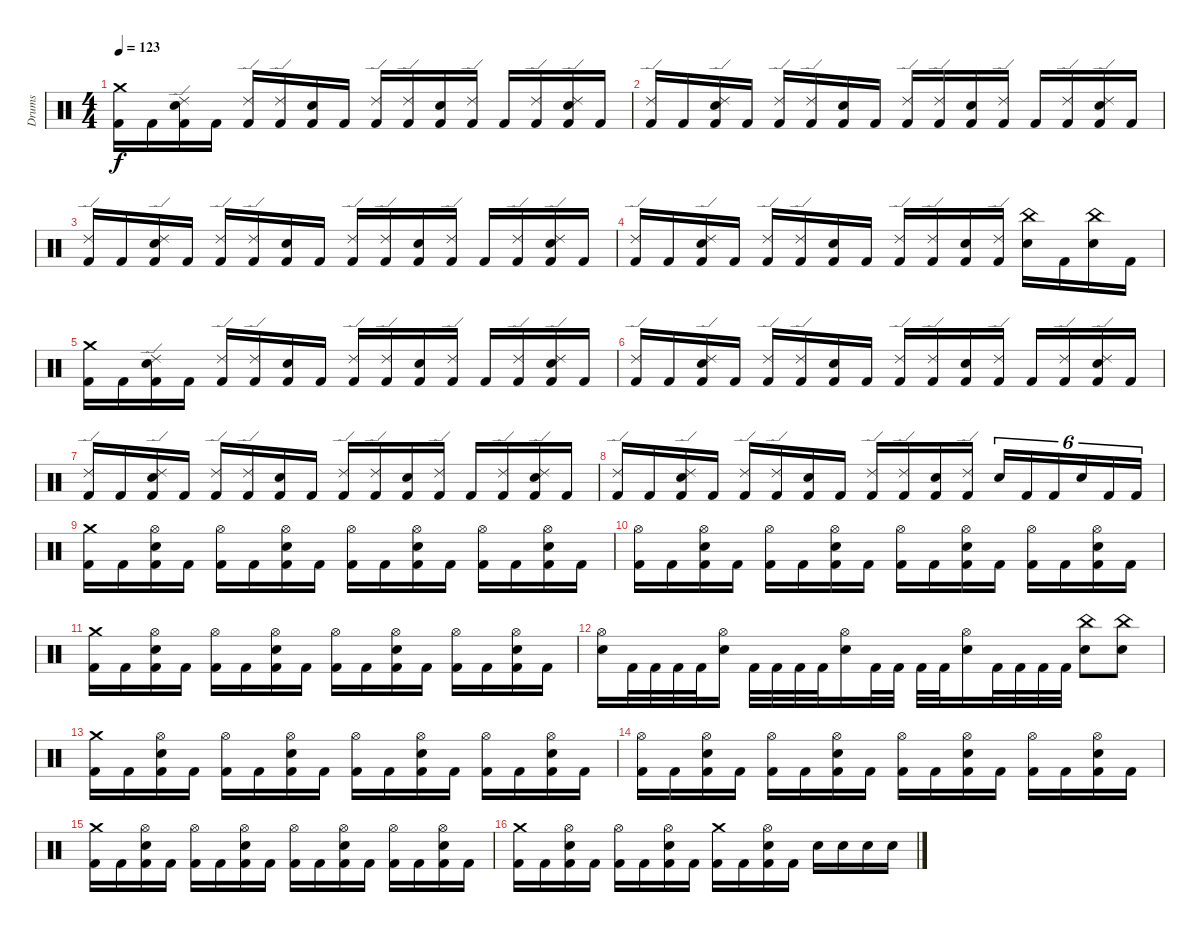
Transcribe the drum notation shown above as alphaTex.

\track ("Drums" "Drums") {instrument percussion}
\staff {score}
\articulation defaults
\ts (4 4)
\tempo 123
\clef neutral
\ks c
("Crash medium (hit)" "Kick (hit) 2").16{dy f} "Kick (hit) 2".16 ("Electric Snare (hit)" "Ride (edge) 2" "Kick (hit) 2").16 "Kick (hit) 2".16 ("Ride (edge) 2" "Kick (hit) 2").16 ("Ride (edge) 2" "Kick (hit) 2").16 ("Electric Snare (hit)" "Kick (hit) 2").16 "Kick (hit) 2".16 ("Ride (edge) 2" "Kick (hit) 2").16 ("Ride (edge) 2" "Kick (hit) 2").16 ("Electric Snare (hit)" "Kick (hit) 2").16 ("Ride (edge) 2" "Kick (hit) 2").16 "Kick (hit) 2".16 ("Ride (edge) 2" "Kick (hit) 2").16 ("Electric Snare (hit)" "Ride (edge) 2" "Kick (hit) 2").16 "Kick (hit) 2".16 |
("Ride (edge) 2" "Kick (hit) 2").16 "Kick (hit) 2".16 ("Electric Snare (hit)" "Ride (edge) 2" "Kick (hit) 2").16 "Kick (hit) 2".16 ("Ride (edge) 2" "Kick (hit) 2").16 ("Ride (edge) 2" "Kick (hit) 2").16 ("Electric Snare (hit)" "Kick (hit) 2").16 "Kick (hit) 2".16 ("Ride (edge) 2" "Kick (hit) 2").16 ("Ride (edge) 2" "Kick (hit) 2").16 ("Electric Snare (hit)" "Kick (hit) 2").16 ("Ride (edge) 2" "Kick (hit) 2").16 "Kick (hit) 2".16 ("Ride (edge) 2" "Kick (hit) 2").16 ("Electric Snare (hit)" "Ride (edge) 2" "Kick (hit) 2").16 "Kick (hit) 2".16 |
("Ride (edge) 2" "Kick (hit) 2").16 "Kick (hit) 2".16 ("Electric Snare (hit)" "Ride (edge) 2" "Kick (hit) 2").16 "Kick (hit) 2".16 ("Ride (edge) 2" "Kick (hit) 2").16 ("Ride (edge) 2" "Kick (hit) 2").16 ("Electric Snare (hit)" "Kick (hit) 2").16 "Kick (hit) 2".16 ("Ride (edge) 2" "Kick (hit) 2").16 ("Ride (edge) 2" "Kick (hit) 2").16 ("Electric Snare (hit)" "Kick (hit) 2").16 ("Ride (edge) 2" "Kick (hit) 2").16 "Kick (hit) 2".16 ("Ride (edge) 2" "Kick (hit) 2").16 ("Electric Snare (hit)" "Ride (edge) 2" "Kick (hit) 2").16 "Kick (hit) 2".16 |
("Ride (edge) 2" "Kick (hit) 2").16 "Kick (hit) 2".16 ("Electric Snare (hit)" "Ride (edge) 2" "Kick (hit) 2").16 "Kick (hit) 2".16 ("Ride (edge) 2" "Kick (hit) 2").16 ("Ride (edge) 2" "Kick (hit) 2").16 ("Electric Snare (hit)" "Kick (hit) 2").16 "Kick (hit) 2".16 ("Ride (edge) 2" "Kick (hit) 2").16 ("Ride (edge) 2" "Kick (hit) 2").16 ("Electric Snare (hit)" "Kick (hit) 2").16 ("Ride (edge) 2" "Kick (hit) 2").16 ("China (hit)" "Electric Snare (hit)").16 "Kick (hit) 2".16 ("China (hit)" "Electric Snare (hit)").16 "Kick (hit) 2".16 |
("Crash medium (hit)" "Kick (hit) 2").16 "Kick (hit) 2".16 ("Electric Snare (hit)" "Ride (edge) 2" "Kick (hit) 2").16 "Kick (hit) 2".16 ("Ride (edge) 2" "Kick (hit) 2").16 ("Ride (edge) 2" "Kick (hit) 2").16 ("Electric Snare (hit)" "Kick (hit) 2").16 "Kick (hit) 2".16 ("Ride (edge) 2" "Kick (hit) 2").16 ("Ride (edge) 2" "Kick (hit) 2").16 ("Electric Snare (hit)" "Kick (hit) 2").16 ("Ride (edge) 2" "Kick (hit) 2").16 "Kick (hit) 2".16 ("Ride (edge) 2" "Kick (hit) 2").16 ("Electric Snare (hit)" "Ride (edge) 2" "Kick (hit) 2").16 "Kick (hit) 2".16 |
("Ride (edge) 2" "Kick (hit) 2").16 "Kick (hit) 2".16 ("Electric Snare (hit)" "Ride (edge) 2" "Kick (hit) 2").16 "Kick (hit) 2".16 ("Ride (edge) 2" "Kick (hit) 2").16 ("Ride (edge) 2" "Kick (hit) 2").16 ("Electric Snare (hit)" "Kick (hit) 2").16 "Kick (hit) 2".16 ("Ride (edge) 2" "Kick (hit) 2").16 ("Ride (edge) 2" "Kick (hit) 2").16 ("Electric Snare (hit)" "Kick (hit) 2").16 ("Ride (edge) 2" "Kick (hit) 2").16 "Kick (hit) 2".16 ("Ride (edge) 2" "Kick (hit) 2").16 ("Electric Snare (hit)" "Ride (edge) 2" "Kick (hit) 2").16 "Kick (hit) 2".16 |
("Ride (edge) 2" "Kick (hit) 2").16 "Kick (hit) 2".16 ("Electric Snare (hit)" "Ride (edge) 2" "Kick (hit) 2").16 "Kick (hit) 2".16 ("Ride (edge) 2" "Kick (hit) 2").16 ("Ride (edge) 2" "Kick (hit) 2").16 ("Electric Snare (hit)" "Kick (hit) 2").16 "Kick (hit) 2".16 ("Ride (edge) 2" "Kick (hit) 2").16 ("Ride (edge) 2" "Kick (hit) 2").16 ("Electric Snare (hit)" "Kick (hit) 2").16 ("Ride (edge) 2" "Kick (hit) 2").16 "Kick (hit) 2".16 ("Ride (edge) 2" "Kick (hit) 2").16 ("Electric Snare (hit)" "Ride (edge) 2" "Kick (hit) 2").16 "Kick (hit) 2".16 |
("Ride (edge) 2" "Kick (hit) 2").16 "Kick (hit) 2".16 ("Electric Snare (hit)" "Ride (edge) 2" "Kick (hit) 2").16 "Kick (hit) 2".16 ("Ride (edge) 2" "Kick (hit) 2").16 ("Ride (edge) 2" "Kick (hit) 2").16 ("Electric Snare (hit)" "Kick (hit) 2").16 "Kick (hit) 2".16 ("Ride (edge) 2" "Kick (hit) 2").16 ("Ride (edge) 2" "Kick (hit) 2").16 ("Electric Snare (hit)" "Kick (hit) 2").16 ("Ride (edge) 2" "Kick (hit) 2").16 "Electric Snare (hit)".16{tu (6 4)} "Kick (hit) 2".16{tu (6 4)} "Kick (hit) 2".16{tu (6 4)} "Electric Snare (hit)".16{tu (6 4)} "Kick (hit) 2".16{tu (6 4)} "Kick (hit) 2".16{tu (6 4)} |
("Kick (hit) 2" "Crash medium (hit)").16 "Kick (hit) 2".16 ("Hi-Hat (open)" "Kick (hit) 2" "Electric Snare (hit)").16 "Kick (hit) 2".16 ("Kick (hit) 2" "Hi-Hat (open)").16 "Kick (hit) 2".16 ("Kick (hit) 2" "Electric Snare (hit)" "Hi-Hat (open)").16 "Kick (hit) 2".16 ("Kick (hit) 2" "Hi-Hat (open)").16 "Kick (hit) 2".16 ("Kick (hit) 2" "Electric Snare (hit)" "Hi-Hat (open)").16 "Kick (hit) 2".16 ("Kick (hit) 2" "Hi-Hat (open)").16 "Kick (hit) 2".16 ("Kick (hit) 2" "Electric Snare (hit)" "Hi-Hat (open)").16 "Kick (hit) 2".16 |
("Hi-Hat (open)" "Kick (hit) 2").16 "Kick (hit) 2".16 ("Hi-Hat (open)" "Kick (hit) 2" "Electric Snare (hit)").16 "Kick (hit) 2".16 ("Kick (hit) 2" "Hi-Hat (open)").16 "Kick (hit) 2".16 ("Kick (hit) 2" "Electric Snare (hit)" "Hi-Hat (open)").16 "Kick (hit) 2".16 ("Kick (hit) 2" "Hi-Hat (open)").16 "Kick (hit) 2".16 ("Kick (hit) 2" "Electric Snare (hit)" "Hi-Hat (open)").16 "Kick (hit) 2".16 ("Kick (hit) 2" "Hi-Hat (open)").16 "Kick (hit) 2".16 ("Kick (hit) 2" "Electric Snare (hit)" "Hi-Hat (open)").16 "Kick (hit) 2".16 |
("Kick (hit) 2" "Crash medium (hit)").16 "Kick (hit) 2".16 ("Hi-Hat (open)" "Kick (hit) 2" "Electric Snare (hit)").16 "Kick (hit) 2".16 ("Kick (hit) 2" "Hi-Hat (open)").16 "Kick (hit) 2".16 ("Kick (hit) 2" "Electric Snare (hit)" "Hi-Hat (open)").16 "Kick (hit) 2".16 ("Kick (hit) 2" "Hi-Hat (open)").16 "Kick (hit) 2".16 ("Kick (hit) 2" "Electric Snare (hit)" "Hi-Hat (open)").16 "Kick (hit) 2".16 ("Kick (hit) 2" "Hi-Hat (open)").16 "Kick (hit) 2".16 ("Kick (hit) 2" "Electric Snare (hit)" "Hi-Hat (open)").16 "Kick (hit) 2".16 |
("Electric Snare (hit)" "Hi-Hat (open)").16 "Kick (hit) 2".32 "Kick (hit) 2".32 "Kick (hit) 2".32 "Kick (hit) 2".32 ("Hi-Hat (open)" "Electric Snare (hit)").16 "Kick (hit) 2".32 "Kick (hit) 2".32 "Kick (hit) 2".32 "Kick (hit) 2".32 ("Hi-Hat (open)" "Electric Snare (hit)").16 "Kick (hit) 2".32 "Kick (hit) 2".32 "Kick (hit) 2".32 "Kick (hit) 2".32 ("Hi-Hat (open)" "Electric Snare (hit)").16 "Kick (hit) 2".32 "Kick (hit) 2".32 "Kick (hit) 2".32 "Kick (hit) 2".32 ("China (hit)" "Electric Snare (hit)").8 ("China (hit)" "Electric Snare (hit)").8 |
("Kick (hit) 2" "Crash medium (hit)").16 "Kick (hit) 2".16 ("Hi-Hat (open)" "Kick (hit) 2" "Electric Snare (hit)").16 "Kick (hit) 2".16 ("Kick (hit) 2" "Hi-Hat (open)").16 "Kick (hit) 2".16 ("Kick (hit) 2" "Electric Snare (hit)" "Hi-Hat (open)").16 "Kick (hit) 2".16 ("Kick (hit) 2" "Hi-Hat (open)").16 "Kick (hit) 2".16 ("Kick (hit) 2" "Electric Snare (hit)" "Hi-Hat (open)").16 "Kick (hit) 2".16 ("Kick (hit) 2" "Hi-Hat (open)").16 "Kick (hit) 2".16 ("Kick (hit) 2" "Electric Snare (hit)" "Hi-Hat (open)").16 "Kick (hit) 2".16 |
("Hi-Hat (open)" "Kick (hit) 2").16 "Kick (hit) 2".16 ("Hi-Hat (open)" "Kick (hit) 2" "Electric Snare (hit)").16 "Kick (hit) 2".16 ("Kick (hit) 2" "Hi-Hat (open)").16 "Kick (hit) 2".16 ("Kick (hit) 2" "Electric Snare (hit)" "Hi-Hat (open)").16 "Kick (hit) 2".16 ("Kick (hit) 2" "Hi-Hat (open)").16 "Kick (hit) 2".16 ("Kick (hit) 2" "Electric Snare (hit)" "Hi-Hat (open)").16 "Kick (hit) 2".16 ("Kick (hit) 2" "Hi-Hat (open)").16 "Kick (hit) 2".16 ("Kick (hit) 2" "Electric Snare (hit)" "Hi-Hat (open)").16 "Kick (hit) 2".16 |
("Kick (hit) 2" "Crash medium (hit)").16 "Kick (hit) 2".16 ("Hi-Hat (open)" "Kick (hit) 2" "Electric Snare (hit)").16 "Kick (hit) 2".16 ("Kick (hit) 2" "Hi-Hat (open)").16 "Kick (hit) 2".16 ("Kick (hit) 2" "Electric Snare (hit)" "Hi-Hat (open)").16 "Kick (hit) 2".16 ("Kick (hit) 2" "Hi-Hat (open)").16 "Kick (hit) 2".16 ("Kick (hit) 2" "Electric Snare (hit)" "Hi-Hat (open)").16 "Kick (hit) 2".16 ("Kick (hit) 2" "Hi-Hat (open)").16 "Kick (hit) 2".16 ("Kick (hit) 2" "Electric Snare (hit)" "Hi-Hat (open)").16 "Kick (hit) 2".16 |
("Kick (hit) 2" "Crash medium (hit)").16 "Kick (hit) 2".16 ("Hi-Hat (open)" "Kick (hit) 2" "Electric Snare (hit)").16 "Kick (hit) 2".16 ("Kick (hit) 2" "Hi-Hat (open)").16 "Kick (hit) 2".16 ("Kick (hit) 2" "Electric Snare (hit)" "Hi-Hat (open)").16 "Kick (hit) 2".16 ("Crash medium (hit)" "Kick (hit) 2").16 "Kick (hit) 2".16 ("Kick (hit) 2" "Electric Snare (hit)" "Hi-Hat (open)").16 "Kick (hit) 2".16 "Electric Snare (hit)".16 "Electric Snare (hit)".16 "Electric Snare (hit)".16 "Electric Snare (hit)".16
